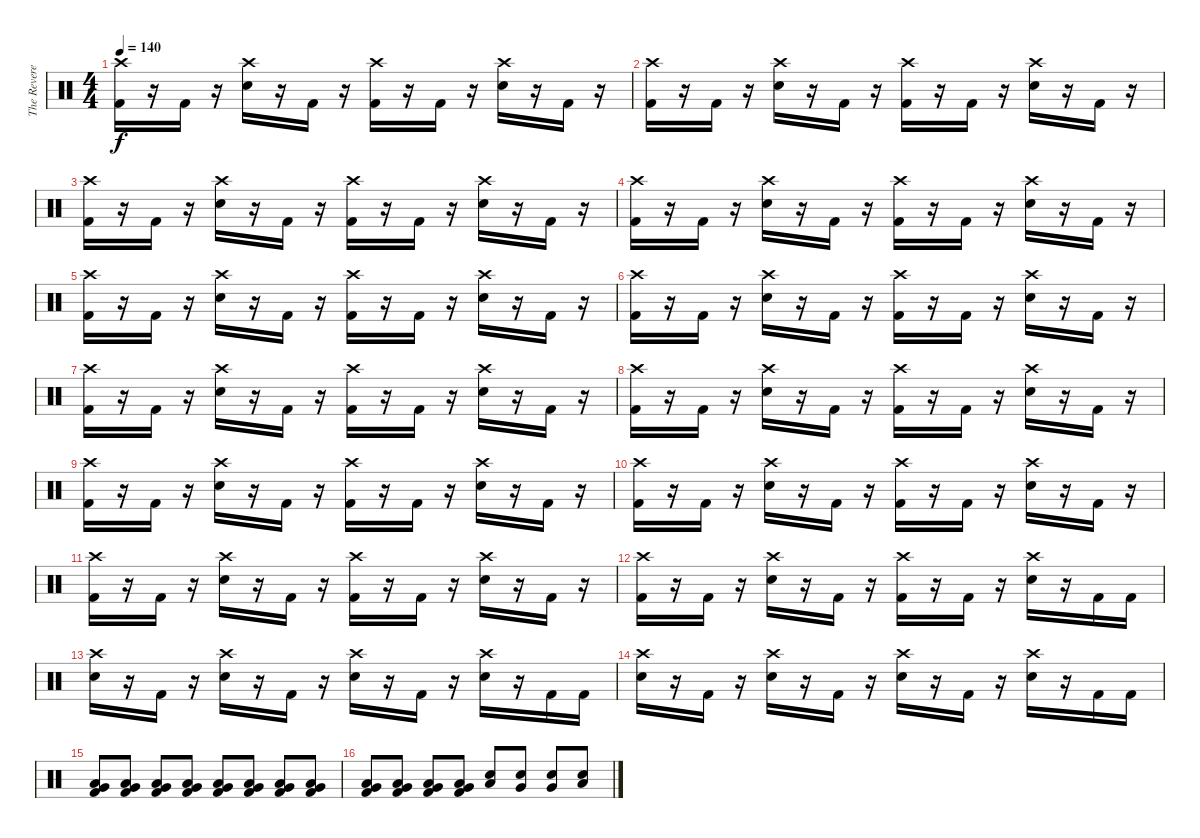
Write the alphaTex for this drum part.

\track ("The Reverend" "The Revere") {instrument percussion}
\staff {score}
\articulation defaults
\ts (4 4)
\tempo 140
\clef neutral
\ks c
("Crash high (hit)" "Kick (hit) 2").16{dy f} r.16 "Kick (hit) 2".16 r.16 ("Crash high (hit)" "Electric Snare (hit)").16 r.16 "Kick (hit) 2".16 r.16 ("Crash high (hit)" "Kick (hit) 2").16 r.16 "Kick (hit) 2".16 r.16 ("Crash high (hit)" "Electric Snare (hit)").16 r.16 "Kick (hit) 2".16 r.16 |
("Crash high (hit)" "Kick (hit) 2").16 r.16 "Kick (hit) 2".16 r.16 ("Crash high (hit)" "Electric Snare (hit)").16 r.16 "Kick (hit) 2".16 r.16 ("Crash high (hit)" "Kick (hit) 2").16 r.16 "Kick (hit) 2".16 r.16 ("Crash high (hit)" "Electric Snare (hit)").16 r.16 "Kick (hit) 2".16 r.16 |
("Crash high (hit)" "Kick (hit) 2").16 r.16 "Kick (hit) 2".16 r.16 ("Crash high (hit)" "Electric Snare (hit)").16 r.16 "Kick (hit) 2".16 r.16 ("Crash high (hit)" "Kick (hit) 2").16 r.16 "Kick (hit) 2".16 r.16 ("Crash high (hit)" "Electric Snare (hit)").16 r.16 "Kick (hit) 2".16 r.16 |
("Crash high (hit)" "Kick (hit) 2").16 r.16 "Kick (hit) 2".16 r.16 ("Crash high (hit)" "Electric Snare (hit)").16 r.16 "Kick (hit) 2".16 r.16 ("Crash high (hit)" "Kick (hit) 2").16 r.16 "Kick (hit) 2".16 r.16 ("Crash high (hit)" "Electric Snare (hit)").16 r.16 "Kick (hit) 2".16 r.16 |
("Crash high (hit)" "Kick (hit) 2").16 r.16 "Kick (hit) 2".16 r.16 ("Crash high (hit)" "Electric Snare (hit)").16 r.16 "Kick (hit) 2".16 r.16 ("Crash high (hit)" "Kick (hit) 2").16 r.16 "Kick (hit) 2".16 r.16 ("Crash high (hit)" "Electric Snare (hit)").16 r.16 "Kick (hit) 2".16 r.16 |
("Crash high (hit)" "Kick (hit) 2").16 r.16 "Kick (hit) 2".16 r.16 ("Crash high (hit)" "Electric Snare (hit)").16 r.16 "Kick (hit) 2".16 r.16 ("Crash high (hit)" "Kick (hit) 2").16 r.16 "Kick (hit) 2".16 r.16 ("Crash high (hit)" "Electric Snare (hit)").16 r.16 "Kick (hit) 2".16 r.16 |
("Crash high (hit)" "Kick (hit) 2").16 r.16 "Kick (hit) 2".16 r.16 ("Crash high (hit)" "Electric Snare (hit)").16 r.16 "Kick (hit) 2".16 r.16 ("Crash high (hit)" "Kick (hit) 2").16 r.16 "Kick (hit) 2".16 r.16 ("Crash high (hit)" "Electric Snare (hit)").16 r.16 "Kick (hit) 2".16 r.16 |
("Crash high (hit)" "Kick (hit) 2").16 r.16 "Kick (hit) 2".16 r.16 ("Crash high (hit)" "Electric Snare (hit)").16 r.16 "Kick (hit) 2".16 r.16 ("Crash high (hit)" "Kick (hit) 2").16 r.16 "Kick (hit) 2".16 r.16 ("Crash high (hit)" "Electric Snare (hit)").16 r.16 "Kick (hit) 2".16 r.16 |
("Crash high (hit)" "Kick (hit) 2").16 r.16 "Kick (hit) 2".16 r.16 ("Crash high (hit)" "Electric Snare (hit)").16 r.16 "Kick (hit) 2".16 r.16 ("Crash high (hit)" "Kick (hit) 2").16 r.16 "Kick (hit) 2".16 r.16 ("Crash high (hit)" "Electric Snare (hit)").16 r.16 "Kick (hit) 2".16 r.16 |
("Crash high (hit)" "Kick (hit) 2").16 r.16 "Kick (hit) 2".16 r.16 ("Crash high (hit)" "Electric Snare (hit)").16 r.16 "Kick (hit) 2".16 r.16 ("Crash high (hit)" "Kick (hit) 2").16 r.16 "Kick (hit) 2".16 r.16 ("Crash high (hit)" "Electric Snare (hit)").16 r.16 "Kick (hit) 2".16 r.16 |
("Crash high (hit)" "Kick (hit) 2").16 r.16 "Kick (hit) 2".16 r.16 ("Crash high (hit)" "Electric Snare (hit)").16 r.16 "Kick (hit) 2".16 r.16 ("Crash high (hit)" "Kick (hit) 2").16 r.16 "Kick (hit) 2".16 r.16 ("Crash high (hit)" "Electric Snare (hit)").16 r.16 "Kick (hit) 2".16 r.16 |
("Crash high (hit)" "Kick (hit) 2").16 r.16 "Kick (hit) 2".16 r.16 ("Crash high (hit)" "Electric Snare (hit)").16 r.16 "Kick (hit) 2".16 r.16 ("Crash high (hit)" "Kick (hit) 2").16 r.16 "Kick (hit) 2".16 r.16 ("Crash high (hit)" "Electric Snare (hit)").16 r.16 "Kick (hit) 2".16 "Kick (hit) 2".16 |
("Crash high (hit)" "Electric Snare (hit)").16 r.16 "Kick (hit) 2".16 r.16 ("Crash high (hit)" "Electric Snare (hit)").16 r.16 "Kick (hit) 2".16 r.16 ("Crash high (hit)" "Electric Snare (hit)").16 r.16 "Kick (hit) 2".16 r.16 ("Crash high (hit)" "Electric Snare (hit)").16 r.16 "Kick (hit) 2".16 "Kick (hit) 2".16 |
("Crash high (hit)" "Electric Snare (hit)").16 r.16 "Kick (hit) 2".16 r.16 ("Crash high (hit)" "Electric Snare (hit)").16 r.16 "Kick (hit) 2".16 r.16 ("Crash high (hit)" "Electric Snare (hit)").16 r.16 "Kick (hit) 2".16 r.16 ("Crash high (hit)" "Electric Snare (hit)").16 r.16 "Kick (hit) 2".16 "Kick (hit) 2".16 |
("Very Low Tom (hit)" "Low Tom (hit)" "Kick (hit) 2").8 ("Very Low Tom (hit)" "Low Tom (hit)" "Kick (hit) 2").8 ("Low Tom (hit)" "Very Low Tom (hit)" "Kick (hit) 2").8 ("Low Tom (hit)" "Very Low Tom (hit)" "Kick (hit) 2").8 ("Low Tom (hit)" "Very Low Tom (hit)" "Kick (hit) 2").8 ("Very Low Tom (hit)" "Low Tom (hit)" "Kick (hit) 2").8 ("Very Low Tom (hit)" "Low Tom (hit)" "Kick (hit) 2").8 ("Low Tom (hit)" "Very Low Tom (hit)" "Kick (hit) 2").8 |
("Very Low Tom (hit)" "Low Tom (hit)" "Kick (hit) 2").8 ("Very Low Tom (hit)" "Low Tom (hit)" "Kick (hit) 2").8 ("Low Tom (hit)" "Very Low Tom (hit)" "Kick (hit) 2").8 ("Low Tom (hit)" "Very Low Tom (hit)" "Kick (hit) 2").8 ("Low Tom (hit)" "Electric Snare (hit)").8 ("Very Low Tom (hit)" "Electric Snare (hit)").8 ("Very Low Tom (hit)" "Electric Snare (hit)").8 ("Low Tom (hit)" "Electric Snare (hit)").8
